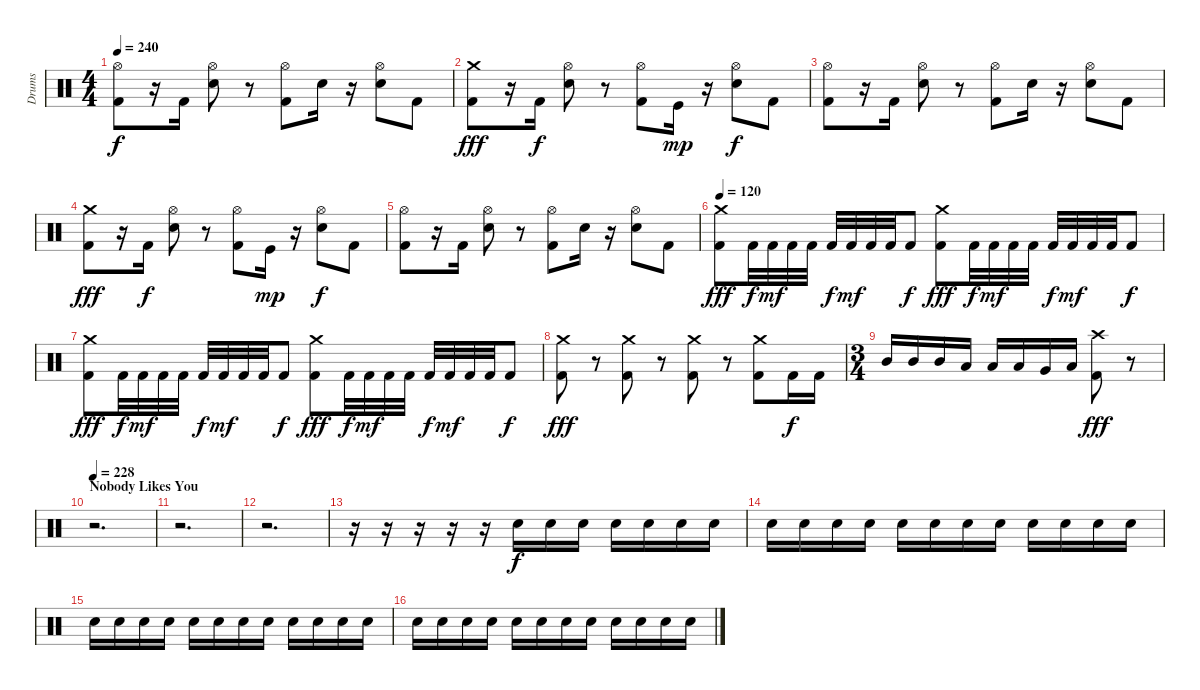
\track ("Drums" "Drums") {instrument percussion}
\staff {score}
\articulation defaults
\ts (4 4)
\tempo 240
\clef neutral
\ks c
("Kick (hit) 2" "Hi-Hat (open)").8{dy f} r.16 "Kick (hit) 2".16 ("Electric Snare (hit)" "Hi-Hat (open)").8 r.8 ("Kick (hit) 2" "Hi-Hat (open)").8 "Electric Snare (hit)".16 r.16 ("Electric Snare (hit)" "Hi-Hat (open)").8 "Kick (hit) 2".8 |
("Kick (hit) 2" "Crash medium (hit)").8{dy fff} r.16 "Kick (hit) 2".16{dy f} ("Electric Snare (hit)" "Hi-Hat (open)").8 r.8 ("Kick (hit) 2" "Hi-Hat (open)").8 "Kick (hit)".16{dy mp} r.16 ("Electric Snare (hit)" "Hi-Hat (open)").8{dy f} "Kick (hit) 2".8 |
("Kick (hit) 2" "Hi-Hat (open)").8 r.16 "Kick (hit) 2".16 ("Electric Snare (hit)" "Hi-Hat (open)").8 r.8 ("Kick (hit) 2" "Hi-Hat (open)").8 "Electric Snare (hit)".16 r.16 ("Electric Snare (hit)" "Hi-Hat (open)").8 "Kick (hit) 2".8 |
("Kick (hit) 2" "Crash medium (hit)").8{dy fff} r.16 "Kick (hit) 2".16{dy f} ("Electric Snare (hit)" "Hi-Hat (open)").8 r.8 ("Kick (hit) 2" "Hi-Hat (open)").8 "Kick (hit)".16{dy mp} r.16 ("Electric Snare (hit)" "Hi-Hat (open)").8{dy f} "Kick (hit) 2".8 |
("Kick (hit) 2" "Hi-Hat (open)").8 r.16 "Kick (hit) 2".16 ("Electric Snare (hit)" "Hi-Hat (open)").8 r.8 ("Kick (hit) 2" "Hi-Hat (open)").8 "Electric Snare (hit)".16 r.16 ("Electric Snare (hit)" "Hi-Hat (open)").8 "Kick (hit) 2".8 |
\tempo 120
("Kick (hit) 2" "Crash medium (hit)").8{dy fff} "Kick (hit) 2".32{dy f} "Kick (hit) 2".32{dy mf} "Kick (hit) 2".32 "Kick (hit) 2".32 "Kick (hit) 2".32{dy f} "Kick (hit) 2".32{dy mf} "Kick (hit) 2".32 "Kick (hit) 2".32 "Kick (hit) 2".8{dy f} ("Kick (hit) 2" "Crash medium (hit)").8{dy fff} "Kick (hit) 2".32{dy f} "Kick (hit) 2".32{dy mf} "Kick (hit) 2".32 "Kick (hit) 2".32 "Kick (hit) 2".32{dy f} "Kick (hit) 2".32{dy mf} "Kick (hit) 2".32 "Kick (hit) 2".32 "Kick (hit) 2".8{dy f} |
("Kick (hit) 2" "Crash medium (hit)").8{dy fff} "Kick (hit) 2".32{dy f} "Kick (hit) 2".32{dy mf} "Kick (hit) 2".32 "Kick (hit) 2".32 "Kick (hit) 2".32{dy f} "Kick (hit) 2".32{dy mf} "Kick (hit) 2".32 "Kick (hit) 2".32 "Kick (hit) 2".8{dy f} ("Kick (hit) 2" "Crash medium (hit)").8{dy fff} "Kick (hit) 2".32{dy f} "Kick (hit) 2".32{dy mf} "Kick (hit) 2".32 "Kick (hit) 2".32 "Kick (hit) 2".32{dy f} "Kick (hit) 2".32{dy mf} "Kick (hit) 2".32 "Kick (hit) 2".32 "Kick (hit) 2".8{dy f} |
("Kick (hit) 2" "Crash medium (hit)").8{dy fff} r.8 ("Kick (hit) 2" "Crash medium (hit)").8 r.8 ("Kick (hit) 2" "Crash medium (hit)").8 r.8 ("Kick (hit) 2" "Crash medium (hit)").8 "Kick (hit) 2".16{dy f} "Kick (hit) 2".16 |
\ts (3 4)
"Mid Tom (hit)".16 "Mid Tom (hit)".16 "Mid Tom (hit)".16 "Low Tom (hit)".16 "Low Tom (hit)".16 "Low Tom (hit)".16 "Very Low Tom (hit)".16 "Low Floor Tom (hit)".16 ("Kick (hit) 2" "Crash high (hit)").8{dy fff} r.8 |
\section ("" "Nobody Likes You")
\tempo 228
r.2{d} |
r.2{d} |
r.2{d} |
r.16{volume 7} r.16 r.16 r.16 r.16 "Snare (hit) 2".16{dy f} "Snare (hit) 2".16 "Snare (hit) 2".16 "Snare (hit) 2".16 "Snare (hit) 2".16 "Snare (hit) 2".16 "Snare (hit) 2".16 |
"Snare (hit) 2".16 "Snare (hit) 2".16 "Snare (hit) 2".16 "Snare (hit) 2".16 "Snare (hit) 2".16 "Snare (hit) 2".16 "Snare (hit) 2".16 "Snare (hit) 2".16 "Snare (hit) 2".16 "Snare (hit) 2".16 "Snare (hit) 2".16 "Snare (hit) 2".16 |
"Snare (hit) 2".16 "Snare (hit) 2".16 "Snare (hit) 2".16 "Snare (hit) 2".16 "Snare (hit) 2".16 "Snare (hit) 2".16 "Snare (hit) 2".16 "Snare (hit) 2".16 "Snare (hit) 2".16 "Snare (hit) 2".16 "Snare (hit) 2".16 "Snare (hit) 2".16 |
"Snare (hit) 2".16 "Snare (hit) 2".16 "Snare (hit) 2".16 "Snare (hit) 2".16 "Snare (hit) 2".16 "Snare (hit) 2".16 "Snare (hit) 2".16 "Snare (hit) 2".16 "Snare (hit) 2".16 "Snare (hit) 2".16 "Snare (hit) 2".16 "Snare (hit) 2".16
